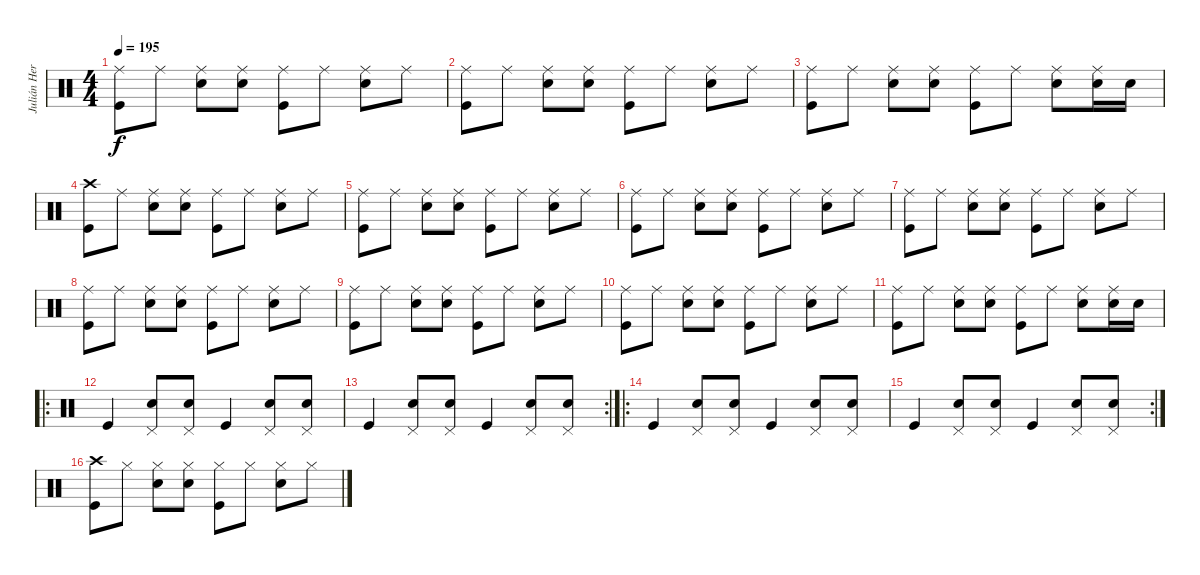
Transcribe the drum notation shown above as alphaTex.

\track ("Julián Hernandez" "Julián Her") {instrument percussion}
\staff {score}
\articulation defaults
\ts (4 4)
\tempo 195
\clef neutral
\ks c
("Ride (middle)" "Kick (hit)").8{dy f} "Ride (middle)".8 ("Ride (middle)" "Electric Snare (hit)").8 ("Ride (middle)" "Electric Snare (hit)").8 ("Ride (middle)" "Kick (hit)").8 "Ride (middle)".8 ("Ride (middle)" "Electric Snare (hit)").8 "Ride (middle)".8 |
("Ride (middle)" "Kick (hit)").8 "Ride (middle)".8 ("Ride (middle)" "Electric Snare (hit)").8 ("Ride (middle)" "Electric Snare (hit)").8 ("Ride (middle)" "Kick (hit)").8 "Ride (middle)".8 ("Ride (middle)" "Electric Snare (hit)").8 "Ride (middle)".8 |
("Ride (middle)" "Kick (hit)").8 "Ride (middle)".8 ("Ride (middle)" "Electric Snare (hit)").8 ("Ride (middle)" "Electric Snare (hit)").8 ("Ride (middle)" "Kick (hit)").8 "Ride (middle)".8 ("Ride (middle)" "Electric Snare (hit)").8 ("Ride (middle)" "Electric Snare (hit)").16 "Electric Snare (hit)".16 |
("Crash high (hit)" "Kick (hit)").8 "Ride (middle)".8 ("Ride (middle)" "Electric Snare (hit)").8 ("Ride (middle)" "Electric Snare (hit)").8 ("Ride (middle)" "Kick (hit)").8 "Ride (middle)".8 ("Ride (middle)" "Electric Snare (hit)").8 "Ride (middle)".8 |
("Ride (middle)" "Kick (hit)").8 "Ride (middle)".8 ("Ride (middle)" "Electric Snare (hit)").8 ("Ride (middle)" "Electric Snare (hit)").8 ("Ride (middle)" "Kick (hit)").8 "Ride (middle)".8 ("Ride (middle)" "Electric Snare (hit)").8 "Ride (middle)".8 |
("Ride (middle)" "Kick (hit)").8 "Ride (middle)".8 ("Ride (middle)" "Electric Snare (hit)").8 ("Ride (middle)" "Electric Snare (hit)").8 ("Ride (middle)" "Kick (hit)").8 "Ride (middle)".8 ("Ride (middle)" "Electric Snare (hit)").8 "Ride (middle)".8 |
("Ride (middle)" "Kick (hit)").8 "Ride (middle)".8 ("Ride (middle)" "Electric Snare (hit)").8 ("Ride (middle)" "Electric Snare (hit)").8 ("Ride (middle)" "Kick (hit)").8 "Ride (middle)".8 ("Ride (middle)" "Electric Snare (hit)").8 "Ride (middle)".8 |
("Ride (middle)" "Kick (hit)").8 "Ride (middle)".8 ("Ride (middle)" "Electric Snare (hit)").8 ("Ride (middle)" "Electric Snare (hit)").8 ("Ride (middle)" "Kick (hit)").8 "Ride (middle)".8 ("Ride (middle)" "Electric Snare (hit)").8 "Ride (middle)".8 |
("Ride (middle)" "Kick (hit)").8 "Ride (middle)".8 ("Ride (middle)" "Electric Snare (hit)").8 ("Ride (middle)" "Electric Snare (hit)").8 ("Ride (middle)" "Kick (hit)").8 "Ride (middle)".8 ("Ride (middle)" "Electric Snare (hit)").8 "Ride (middle)".8 |
("Ride (middle)" "Kick (hit)").8 "Ride (middle)".8 ("Ride (middle)" "Electric Snare (hit)").8 ("Ride (middle)" "Electric Snare (hit)").8 ("Ride (middle)" "Kick (hit)").8 "Ride (middle)".8 ("Ride (middle)" "Electric Snare (hit)").8 "Ride (middle)".8 |
("Ride (middle)" "Kick (hit)").8 "Ride (middle)".8 ("Ride (middle)" "Electric Snare (hit)").8 ("Ride (middle)" "Electric Snare (hit)").8 ("Ride (middle)" "Kick (hit)").8 "Ride (middle)".8 ("Ride (middle)" "Electric Snare (hit)").8 ("Ride (middle)" "Electric Snare (hit)").16 "Electric Snare (hit)".16 |
\ro "Kick (hit)".4
("Electric Snare (hit)" "Pedal Hi-Hat (hit)").8 ("Electric Snare (hit)" "Pedal Hi-Hat (hit)").8 "Kick (hit)".4 ("Electric Snare (hit)" "Pedal Hi-Hat (hit)").8 ("Electric Snare (hit)" "Pedal Hi-Hat (hit)").8 |
\rc 2 "Kick (hit)".4
("Electric Snare (hit)" "Pedal Hi-Hat (hit)").8 ("Electric Snare (hit)" "Pedal Hi-Hat (hit)").8 "Kick (hit)".4 ("Electric Snare (hit)" "Pedal Hi-Hat (hit)").8 ("Electric Snare (hit)" "Pedal Hi-Hat (hit)").8 |
\ro "Kick (hit)".4
("Electric Snare (hit)" "Pedal Hi-Hat (hit)").8 ("Electric Snare (hit)" "Pedal Hi-Hat (hit)").8 "Kick (hit)".4 ("Electric Snare (hit)" "Pedal Hi-Hat (hit)").8 ("Electric Snare (hit)" "Pedal Hi-Hat (hit)").8 |
\rc 2 "Kick (hit)".4
("Electric Snare (hit)" "Pedal Hi-Hat (hit)").8 ("Electric Snare (hit)" "Pedal Hi-Hat (hit)").8 "Kick (hit)".4 ("Electric Snare (hit)" "Pedal Hi-Hat (hit)").8 ("Electric Snare (hit)" "Pedal Hi-Hat (hit)").8 |
("Crash high (hit)" "Kick (hit)").8 "Hi-Hat (closed)".8 ("Hi-Hat (closed)" "Electric Snare (hit)").8 ("Hi-Hat (closed)" "Electric Snare (hit)").8 ("Hi-Hat (closed)" "Kick (hit)").8 "Hi-Hat (closed)".8 ("Hi-Hat (closed)" "Electric Snare (hit)").8 "Hi-Hat (closed)".8
